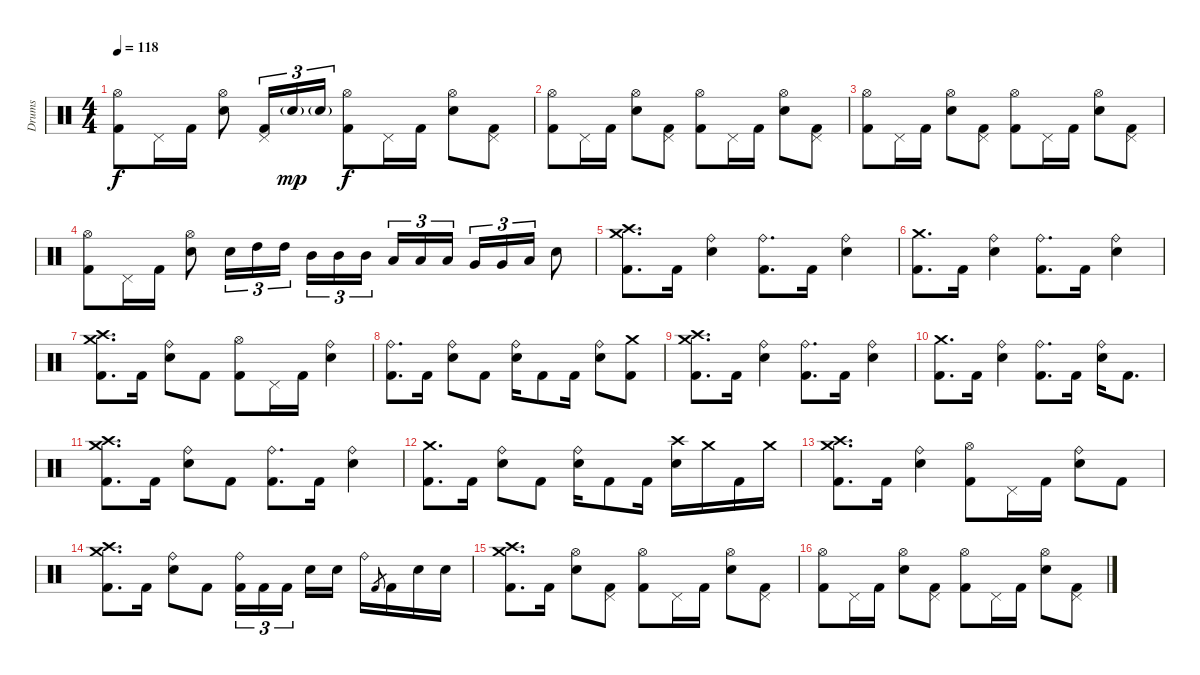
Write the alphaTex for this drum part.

\track ("Drums" "Drums") {instrument percussion}
\staff {score}
\articulation defaults
\ts (4 4)
\tempo 118
\clef neutral
\ks c
("Hi-Hat (open)" "Kick (hit) 2").8{dy f} "Pedal Hi-Hat (hit)".16 "Kick (hit) 2".16 ("Hi-Hat (open)" "Electric Snare (hit)").8 ("Pedal Hi-Hat (hit)" "Kick (hit) 2").16{tu (3 2)} "Electric Snare (hit)"{g}.16{tu (3 2) dy mp} "Electric Snare (hit)"{g}.16{tu (3 2)} ("Hi-Hat (open)" "Kick (hit) 2").8{dy f} "Pedal Hi-Hat (hit)".16 "Kick (hit) 2".16 ("Hi-Hat (open)" "Electric Snare (hit)").8 ("Pedal Hi-Hat (hit)" "Kick (hit) 2").8 |
("Hi-Hat (open)" "Kick (hit) 2").8 "Pedal Hi-Hat (hit)".16 "Kick (hit) 2".16 ("Hi-Hat (open)" "Electric Snare (hit)").8 ("Pedal Hi-Hat (hit)" "Kick (hit) 2").8 ("Hi-Hat (open)" "Kick (hit) 2").8 "Pedal Hi-Hat (hit)".16 "Kick (hit) 2".16 ("Hi-Hat (open)" "Electric Snare (hit)").8 ("Pedal Hi-Hat (hit)" "Kick (hit) 2").8 |
("Hi-Hat (open)" "Kick (hit) 2").8 "Pedal Hi-Hat (hit)".16 "Kick (hit) 2".16 ("Hi-Hat (open)" "Electric Snare (hit)").8 ("Pedal Hi-Hat (hit)" "Kick (hit) 2").8 ("Hi-Hat (open)" "Kick (hit) 2").8 "Pedal Hi-Hat (hit)".16 "Kick (hit) 2".16 ("Hi-Hat (open)" "Electric Snare (hit)").8 ("Pedal Hi-Hat (hit)" "Kick (hit) 2").8 |
("Hi-Hat (open)" "Kick (hit) 2").8 "Pedal Hi-Hat (hit)".16 "Kick (hit) 2".16 ("Hi-Hat (open)" "Electric Snare (hit)").8 "Electric Snare (hit)".16{tu (3 2)} "High Tom (hit)".16{tu (3 2)} "High Tom (hit)".16{tu (3 2)} "Mid Tom (hit)".16{tu (3 2)} "Mid Tom (hit)".16{tu (3 2)} "Mid Tom (hit)".16{tu (3 2) beam splitsecondary} "Low Tom (hit)".16{tu (3 2)} "Low Tom (hit)".16{tu (3 2)} "Low Tom (hit)".16{tu (3 2)} "Very Low Tom (hit)".16{tu (3 2)} "Very Low Tom (hit)".16{tu (3 2)} "Low Floor Tom (hit)".16{tu (3 2)} "Electric Snare (hit)".8 |
("Crash medium (hit)" "Crash high (hit)" "Kick (hit) 2").8{d} "Kick (hit) 2".16 ("Ride (bell)" "Electric Snare (hit)").4 ("Ride (bell)" "Kick (hit) 2").8{d} "Kick (hit) 2".16 ("Ride (bell)" "Electric Snare (hit)").4 |
("Crash medium (hit)" "Kick (hit) 2").8{d} "Kick (hit) 2".16 ("Ride (bell)" "Electric Snare (hit)").4 ("Ride (bell)" "Kick (hit) 2").8{d} "Kick (hit) 2".16 ("Ride (bell)" "Electric Snare (hit)").4 |
("Crash high (hit)" "Crash medium (hit)" "Kick (hit) 2").8{d} "Kick (hit) 2".16 ("Ride (bell)" "Electric Snare (hit)").8 "Kick (hit) 2".8 ("Hi-Hat (open)" "Kick (hit) 2").8 "Pedal Hi-Hat (hit)".16 "Kick (hit) 2".16 ("Ride (bell)" "Electric Snare (hit)").4 |
("Ride (bell)" "Kick (hit) 2").8{d} "Kick (hit) 2".16 ("Ride (bell)" "Electric Snare (hit)").8 "Kick (hit) 2".8 ("Ride (bell)" "Electric Snare (hit)").16 "Kick (hit) 2".8 "Kick (hit) 2".16 ("Ride (bell)" "Electric Snare (hit)").8 ("Crash medium (hit)" "Kick (hit) 2").8 |
("Crash medium (hit)" "Crash high (hit)" "Kick (hit) 2").8{d} "Kick (hit) 2".16 ("Ride (bell)" "Electric Snare (hit)").4 ("Ride (bell)" "Kick (hit) 2").8{d} "Kick (hit) 2".16 ("Ride (bell)" "Electric Snare (hit)").4 |
("Crash medium (hit)" "Kick (hit) 2").8{d} "Kick (hit) 2".16 ("Ride (bell)" "Electric Snare (hit)").4 ("Ride (bell)" "Kick (hit) 2").8{d} "Kick (hit) 2".16 ("Ride (bell)" "Electric Snare (hit)").16 "Kick (hit) 2".8{d} |
("Crash high (hit)" "Crash medium (hit)" "Kick (hit) 2").8{d} "Kick (hit) 2".16 ("Ride (bell)" "Electric Snare (hit)").8 "Kick (hit) 2".8 ("Ride (bell)" "Kick (hit) 2").8{d} "Kick (hit) 2".16 ("Ride (bell)" "Electric Snare (hit)").4 |
("Crash medium (hit)" "Kick (hit) 2").8{d} "Kick (hit) 2".16 ("Ride (bell)" "Electric Snare (hit)").8 "Kick (hit) 2".8 ("Ride (bell)" "Electric Snare (hit)").16 "Kick (hit) 2".8 "Kick (hit) 2".16 ("Crash high (hit)" "Electric Snare (hit)").16 "Crash medium (hit)".16 "Kick (hit) 2".16 "Crash medium (hit)".16 |
("Crash high (hit)" "Crash medium (hit)" "Kick (hit) 2").8{d} "Kick (hit) 2".16 ("Ride (bell)" "Electric Snare (hit)").4 ("Hi-Hat (open)" "Kick (hit) 2").8 "Pedal Hi-Hat (hit)".16 "Kick (hit) 2".16 ("Ride (bell)" "Electric Snare (hit)").8 "Kick (hit) 2".8 |
("Crash medium (hit)" "Crash high (hit)" "Kick (hit) 2").8{d} "Kick (hit) 2".16 ("Ride (bell)" "Electric Snare (hit)").8 "Kick (hit) 2".8 ("Ride (bell)" "Kick (hit) 2").16{tu (3 2)} "Kick (hit) 2".16{tu (3 2)} "Kick (hit) 2".16{tu (3 2) beam splitsecondary} "Electric Snare (hit)".16 "Electric Snare (hit)".16 "Ride (bell)".16 "Kick (hit) 2".8{gr} "Kick (hit) 2".16 "Electric Snare (hit)".16 "Electric Snare (hit)".16 |
("Crash medium (hit)" "Crash high (hit)" "Kick (hit) 2").8{d} "Kick (hit) 2".16 ("Hi-Hat (open)" "Electric Snare (hit)").8 ("Pedal Hi-Hat (hit)" "Kick (hit) 2").8 ("Hi-Hat (open)" "Kick (hit) 2").8 "Pedal Hi-Hat (hit)".16 "Kick (hit) 2".16 ("Hi-Hat (open)" "Electric Snare (hit)").8 ("Pedal Hi-Hat (hit)" "Kick (hit) 2").8 |
("Hi-Hat (open)" "Kick (hit) 2").8 "Pedal Hi-Hat (hit)".16 "Kick (hit) 2".16 ("Hi-Hat (open)" "Electric Snare (hit)").8 ("Pedal Hi-Hat (hit)" "Kick (hit) 2").8 ("Hi-Hat (open)" "Kick (hit) 2").8 "Pedal Hi-Hat (hit)".16 "Kick (hit) 2".16 ("Hi-Hat (open)" "Electric Snare (hit)").8 ("Pedal Hi-Hat (hit)" "Kick (hit) 2").8
